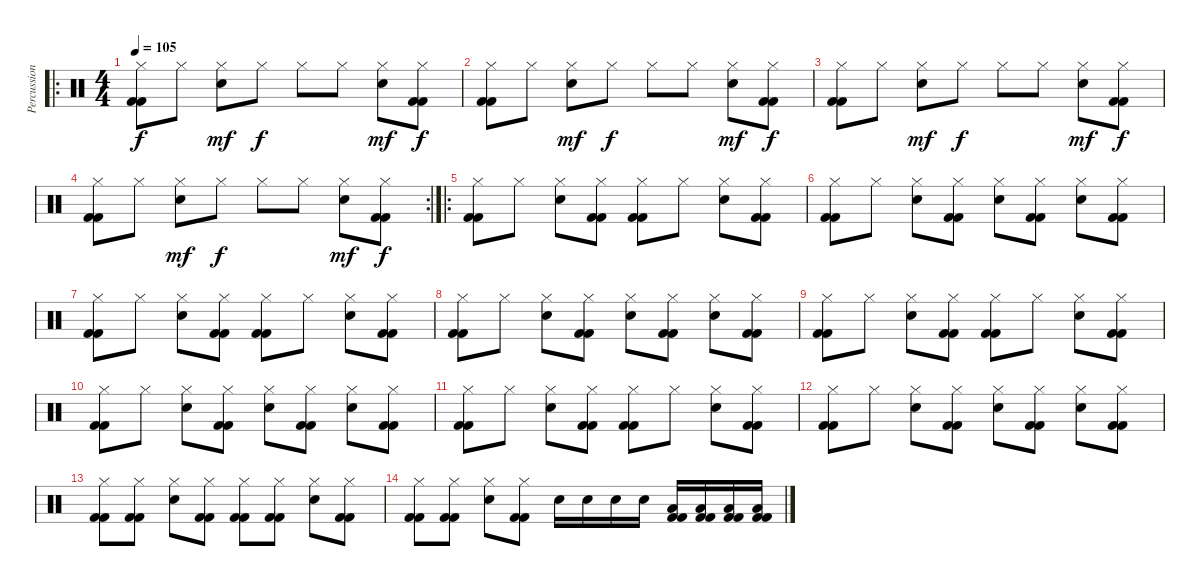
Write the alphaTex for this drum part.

\track ("Percussions" "Percussion") {instrument percussion}
\staff {score}
\articulation defaults
\ro
\ts (4 4)
\tempo 105
\clef neutral
\ks c
("Hi-Hat (closed)" "Kick (hit) 2" "Kick (hit) 2").8{dy f} "Hi-Hat (closed)".8 ("Hi-Hat (closed)" "Electric Snare (hit)").8{dy mf} "Hi-Hat (closed)".8{dy f} "Hi-Hat (closed)".8 "Hi-Hat (closed)".8 ("Hi-Hat (closed)" "Electric Snare (hit)").8{dy mf} ("Hi-Hat (closed)" "Kick (hit) 2" "Kick (hit) 2").8{dy f} |
("Hi-Hat (closed)" "Kick (hit) 2" "Kick (hit) 2").8 "Hi-Hat (closed)".8 ("Hi-Hat (closed)" "Electric Snare (hit)").8{dy mf} "Hi-Hat (closed)".8{dy f} "Hi-Hat (closed)".8 "Hi-Hat (closed)".8 ("Hi-Hat (closed)" "Electric Snare (hit)").8{dy mf} ("Hi-Hat (closed)" "Kick (hit) 2" "Kick (hit) 2").8{dy f} |
("Hi-Hat (closed)" "Kick (hit) 2" "Kick (hit) 2").8 "Hi-Hat (closed)".8 ("Hi-Hat (closed)" "Electric Snare (hit)").8{dy mf} "Hi-Hat (closed)".8{dy f} "Hi-Hat (closed)".8 "Hi-Hat (closed)".8 ("Hi-Hat (closed)" "Electric Snare (hit)").8{dy mf} ("Hi-Hat (closed)" "Kick (hit) 2" "Kick (hit) 2").8{dy f} |
\rc 2
("Hi-Hat (closed)" "Kick (hit) 2" "Kick (hit) 2").8 "Hi-Hat (closed)".8 ("Hi-Hat (closed)" "Electric Snare (hit)").8{dy mf} "Hi-Hat (closed)".8{dy f} "Hi-Hat (closed)".8 "Hi-Hat (closed)".8 ("Hi-Hat (closed)" "Electric Snare (hit)").8{dy mf} ("Hi-Hat (closed)" "Kick (hit) 2" "Kick (hit) 2").8{dy f} |
\ro
("Hi-Hat (closed)" "Kick (hit) 2" "Kick (hit) 2").8 "Hi-Hat (closed)".8 ("Hi-Hat (closed)" "Electric Snare (hit)").8 ("Hi-Hat (closed)" "Kick (hit) 2" "Kick (hit) 2").8 ("Hi-Hat (closed)" "Kick (hit) 2" "Kick (hit) 2").8 "Hi-Hat (closed)".8 ("Hi-Hat (closed)" "Electric Snare (hit)").8 ("Hi-Hat (closed)" "Kick (hit) 2" "Kick (hit) 2").8 |
("Hi-Hat (closed)" "Kick (hit) 2" "Kick (hit) 2").8 "Hi-Hat (closed)".8 ("Hi-Hat (closed)" "Electric Snare (hit)").8 ("Hi-Hat (closed)" "Kick (hit) 2" "Kick (hit) 2").8 ("Hi-Hat (closed)" "Electric Snare (hit)").8 ("Hi-Hat (closed)" "Kick (hit) 2" "Kick (hit) 2").8 ("Hi-Hat (closed)" "Electric Snare (hit)").8 ("Hi-Hat (closed)" "Kick (hit) 2" "Kick (hit) 2").8 |
("Hi-Hat (closed)" "Kick (hit) 2" "Kick (hit) 2").8 "Hi-Hat (closed)".8 ("Hi-Hat (closed)" "Electric Snare (hit)").8 ("Hi-Hat (closed)" "Kick (hit) 2" "Kick (hit) 2").8 ("Hi-Hat (closed)" "Kick (hit) 2" "Kick (hit) 2").8 "Hi-Hat (closed)".8 ("Hi-Hat (closed)" "Electric Snare (hit)").8 ("Hi-Hat (closed)" "Kick (hit) 2" "Kick (hit) 2").8 |
("Hi-Hat (closed)" "Kick (hit) 2" "Kick (hit) 2").8 "Hi-Hat (closed)".8 ("Hi-Hat (closed)" "Electric Snare (hit)").8 ("Hi-Hat (closed)" "Kick (hit) 2" "Kick (hit) 2").8 ("Hi-Hat (closed)" "Electric Snare (hit)").8 ("Hi-Hat (closed)" "Kick (hit) 2" "Kick (hit) 2").8 ("Hi-Hat (closed)" "Electric Snare (hit)").8 ("Hi-Hat (closed)" "Kick (hit) 2" "Kick (hit) 2").8 |
("Hi-Hat (closed)" "Kick (hit) 2" "Kick (hit) 2").8 "Hi-Hat (closed)".8 ("Hi-Hat (closed)" "Electric Snare (hit)").8 ("Hi-Hat (closed)" "Kick (hit) 2" "Kick (hit) 2").8 ("Hi-Hat (closed)" "Kick (hit) 2" "Kick (hit) 2").8 "Hi-Hat (closed)".8 ("Hi-Hat (closed)" "Electric Snare (hit)").8 ("Hi-Hat (closed)" "Kick (hit) 2" "Kick (hit) 2").8 |
("Hi-Hat (closed)" "Kick (hit) 2" "Kick (hit) 2").8 "Hi-Hat (closed)".8 ("Hi-Hat (closed)" "Electric Snare (hit)").8 ("Hi-Hat (closed)" "Kick (hit) 2" "Kick (hit) 2").8 ("Hi-Hat (closed)" "Electric Snare (hit)").8 ("Hi-Hat (closed)" "Kick (hit) 2" "Kick (hit) 2").8 ("Hi-Hat (closed)" "Electric Snare (hit)").8 ("Hi-Hat (closed)" "Kick (hit) 2" "Kick (hit) 2").8 |
("Hi-Hat (closed)" "Kick (hit) 2" "Kick (hit) 2").8 "Hi-Hat (closed)".8 ("Hi-Hat (closed)" "Electric Snare (hit)").8 ("Hi-Hat (closed)" "Kick (hit) 2" "Kick (hit) 2").8 ("Hi-Hat (closed)" "Kick (hit) 2" "Kick (hit) 2").8 "Hi-Hat (closed)".8 ("Hi-Hat (closed)" "Electric Snare (hit)").8 ("Hi-Hat (closed)" "Kick (hit) 2" "Kick (hit) 2").8 |
("Hi-Hat (closed)" "Kick (hit) 2" "Kick (hit) 2").8 "Hi-Hat (closed)".8 ("Hi-Hat (closed)" "Electric Snare (hit)").8 ("Hi-Hat (closed)" "Kick (hit) 2" "Kick (hit) 2").8 ("Hi-Hat (closed)" "Electric Snare (hit)").8 ("Hi-Hat (closed)" "Kick (hit) 2" "Kick (hit) 2").8 ("Hi-Hat (closed)" "Electric Snare (hit)").8 ("Hi-Hat (closed)" "Kick (hit) 2" "Kick (hit) 2").8 |
("Hi-Hat (closed)" "Kick (hit) 2" "Kick (hit) 2").8 ("Hi-Hat (closed)" "Kick (hit) 2" "Kick (hit) 2").8 ("Hi-Hat (closed)" "Electric Snare (hit)").8 ("Hi-Hat (closed)" "Kick (hit) 2" "Kick (hit) 2").8 ("Hi-Hat (closed)" "Kick (hit) 2" "Kick (hit) 2").8 ("Hi-Hat (closed)" "Kick (hit) 2" "Kick (hit) 2").8 ("Hi-Hat (closed)" "Electric Snare (hit)").8 ("Hi-Hat (closed)" "Kick (hit) 2" "Kick (hit) 2").8 |
("Hi-Hat (closed)" "Kick (hit) 2" "Kick (hit) 2").8 ("Hi-Hat (closed)" "Kick (hit) 2" "Kick (hit) 2").8 ("Hi-Hat (closed)" "Electric Snare (hit)").8 ("Hi-Hat (closed)" "Kick (hit) 2" "Kick (hit) 2").8 "Electric Snare (hit)".16 "Electric Snare (hit)".16 "Electric Snare (hit)".16 "Electric Snare (hit)".16 ("Low Floor Tom (hit)" "Kick (hit) 2" "Kick (hit) 2").16 ("Low Floor Tom (hit)" "Kick (hit) 2" "Kick (hit) 2").16 ("Low Floor Tom (hit)" "Kick (hit) 2" "Kick (hit) 2").16 ("Low Floor Tom (hit)" "Kick (hit) 2" "Kick (hit) 2").16
